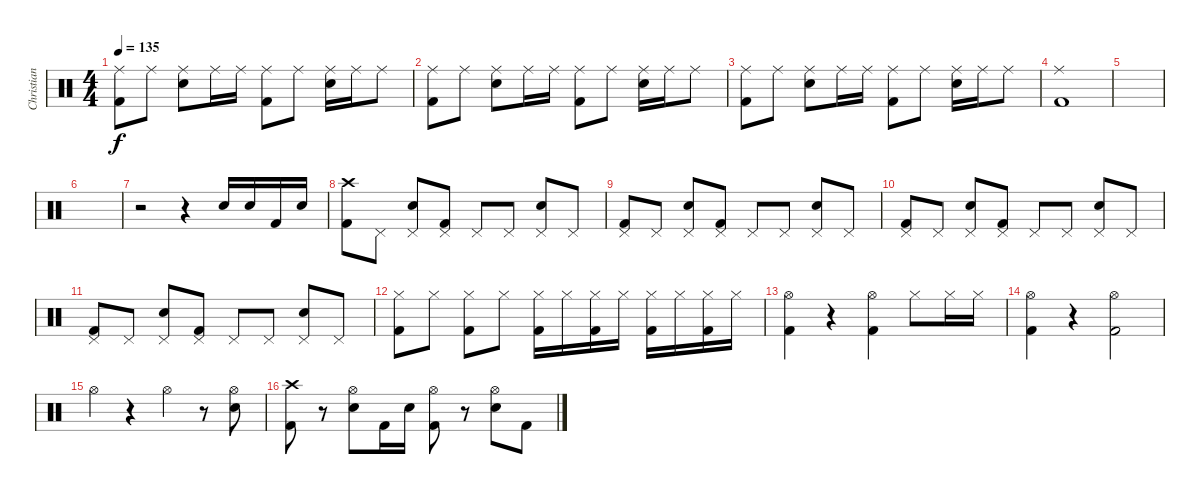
\track ("Christian" "Christian") {instrument percussion}
\staff {score}
\articulation defaults
\ts (4 4)
\tempo 135
\clef neutral
\ks c
("Ride (middle)" "Kick (hit) 2").8{dy f} "Ride (middle)".8 ("Ride (middle)" "Snare (hit) 2").8 "Ride (middle)".16 "Ride (middle)".16 ("Ride (middle)" "Kick (hit) 2").8 "Ride (middle)".8 ("Ride (middle)" "Snare (hit) 2").16 "Ride (middle)".16 "Ride (middle)".8 |
("Ride (middle)" "Kick (hit) 2").8 "Ride (middle)".8 ("Ride (middle)" "Snare (hit) 2").8 "Ride (middle)".16 "Ride (middle)".16 ("Ride (middle)" "Kick (hit) 2").8 "Ride (middle)".8 ("Ride (middle)" "Snare (hit) 2").16 "Ride (middle)".16 "Ride (middle)".8 |
("Ride (middle)" "Kick (hit) 2").8 "Ride (middle)".8 ("Ride (middle)" "Snare (hit) 2").8 "Ride (middle)".16 "Ride (middle)".16 ("Ride (middle)" "Kick (hit) 2").8 "Ride (middle)".8 ("Ride (middle)" "Snare (hit) 2").16 "Ride (middle)".16 "Ride (middle)".8 |
("Ride (middle)" "Kick (hit) 2").1 |
|
|
r.2 r.4 "Snare (hit) 2".16 "Snare (hit) 2".16 "Kick (hit) 2".16 "Snare (hit) 2".16 |
("Crash high (hit)" "Kick (hit) 2").8 "Pedal Hi-Hat (hit)".8 ("Pedal Hi-Hat (hit)" "Snare (hit) 2").8 ("Pedal Hi-Hat (hit)" "Kick (hit) 2").8 "Pedal Hi-Hat (hit)".8 "Pedal Hi-Hat (hit)".8 ("Pedal Hi-Hat (hit)" "Snare (hit) 2").8 "Pedal Hi-Hat (hit)".8 |
("Pedal Hi-Hat (hit)" "Kick (hit) 2").8 "Pedal Hi-Hat (hit)".8 ("Pedal Hi-Hat (hit)" "Snare (hit) 2").8 ("Pedal Hi-Hat (hit)" "Kick (hit) 2").8 "Pedal Hi-Hat (hit)".8 "Pedal Hi-Hat (hit)".8 ("Pedal Hi-Hat (hit)" "Snare (hit) 2").8 "Pedal Hi-Hat (hit)".8 |
("Pedal Hi-Hat (hit)" "Kick (hit) 2").8 "Pedal Hi-Hat (hit)".8 ("Pedal Hi-Hat (hit)" "Snare (hit) 2").8 ("Pedal Hi-Hat (hit)" "Kick (hit) 2").8 "Pedal Hi-Hat (hit)".8 "Pedal Hi-Hat (hit)".8 ("Pedal Hi-Hat (hit)" "Snare (hit) 2").8 "Pedal Hi-Hat (hit)".8 |
("Pedal Hi-Hat (hit)" "Kick (hit) 2").8 "Pedal Hi-Hat (hit)".8 ("Pedal Hi-Hat (hit)" "Snare (hit) 2").8 ("Pedal Hi-Hat (hit)" "Kick (hit) 2").8 "Pedal Hi-Hat (hit)".8 "Pedal Hi-Hat (hit)".8 ("Pedal Hi-Hat (hit)" "Snare (hit) 2").8 "Pedal Hi-Hat (hit)".8 |
("Hi-Hat (closed)" "Kick (hit) 2").8 "Hi-Hat (closed)".8 ("Hi-Hat (closed)" "Kick (hit) 2").8 "Hi-Hat (closed)".8 ("Hi-Hat (closed)" "Kick (hit) 2").16 "Hi-Hat (closed)".16 ("Hi-Hat (closed)" "Kick (hit) 2").16 "Hi-Hat (closed)".16 ("Hi-Hat (closed)" "Kick (hit) 2").16 "Hi-Hat (closed)".16 ("Hi-Hat (closed)" "Kick (hit) 2").16 "Hi-Hat (closed)".16 |
("Hi-Hat (open)" "Kick (hit) 2").4 r.4 ("Hi-Hat (open)" "Kick (hit) 2").4 "Hi-Hat (closed)".8 "Hi-Hat (closed)".16 "Hi-Hat (closed)".16 |
("Hi-Hat (open)" "Kick (hit) 2").4 r.4 ("Hi-Hat (open)" "Kick (hit) 2").2 |
"Hi-Hat (open)".4 r.4 "Hi-Hat (open)".4 r.8 ("Hi-Hat (open)" "Snare (hit) 2").8{volume 14} |
("Crash high (hit)" "Kick (hit) 2").8 r.8 ("Hi-Hat (open)" "Snare (hit) 2").8 "Kick (hit) 2".16 "Snare (hit) 2".16 ("Hi-Hat (open)" "Kick (hit) 2").8 r.8 ("Hi-Hat (open)" "Snare (hit) 2").8 "Kick (hit) 2".8
